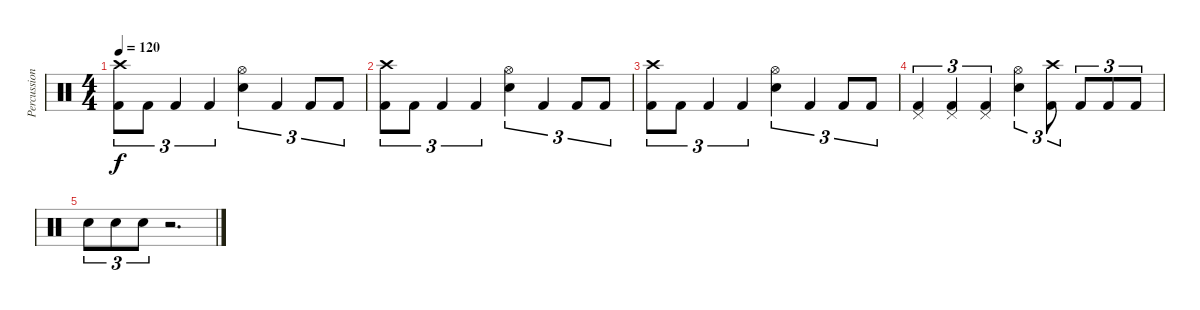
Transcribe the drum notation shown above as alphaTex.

\track ("Percussion" "Percussion") {instrument percussion}
\staff {score}
\articulation defaults
\ts (4 4)
\tempo 120
\clef neutral
\ks c
("Kick (hit) 2" "Crash high (hit)").8{tu (3 2) dy f} "Kick (hit) 2".8{tu (3 2)} "Kick (hit) 2".4{tu (3 2)} "Kick (hit) 2".4{tu (3 2)} ("Snare (hit) 2" "Hi-Hat (open)").4{tu (3 2)} "Kick (hit) 2".4{tu (3 2)} "Kick (hit) 2".8{tu (3 2)} "Kick (hit) 2".8{tu (3 2)} |
("Kick (hit) 2" "Crash high (hit)").8{tu (3 2)} "Kick (hit) 2".8{tu (3 2)} "Kick (hit) 2".4{tu (3 2)} "Kick (hit) 2".4{tu (3 2)} ("Snare (hit) 2" "Hi-Hat (open)").4{tu (3 2)} "Kick (hit) 2".4{tu (3 2)} "Kick (hit) 2".8{tu (3 2)} "Kick (hit) 2".8{tu (3 2)} |
("Kick (hit) 2" "Crash high (hit)").8{tu (3 2)} "Kick (hit) 2".8{tu (3 2)} "Kick (hit) 2".4{tu (3 2)} "Kick (hit) 2".4{tu (3 2)} ("Snare (hit) 2" "Hi-Hat (open)").4{tu (3 2)} "Kick (hit) 2".4{tu (3 2)} "Kick (hit) 2".8{tu (3 2)} "Kick (hit) 2".8{tu (3 2)} |
("Kick (hit) 2" "Pedal Hi-Hat (hit)").4{tu (3 2)} ("Kick (hit) 2" "Pedal Hi-Hat (hit)").4{tu (3 2)} ("Kick (hit) 2" "Pedal Hi-Hat (hit)").4{tu (3 2)} ("Snare (hit) 2" "Hi-Hat (open)").4{tu (3 2)} ("Kick (hit) 2" "Crash high (hit)").8{tu (3 2)} "Kick (hit) 2".8{tu (3 2)} "Kick (hit) 2".8{tu (3 2)} "Kick (hit) 2".8{tu (3 2)} |
"Snare (hit) 2".8{tu (3 2)} "Snare (hit) 2".8{tu (3 2)} "Snare (hit) 2".8{tu (3 2)} r.2{d}
